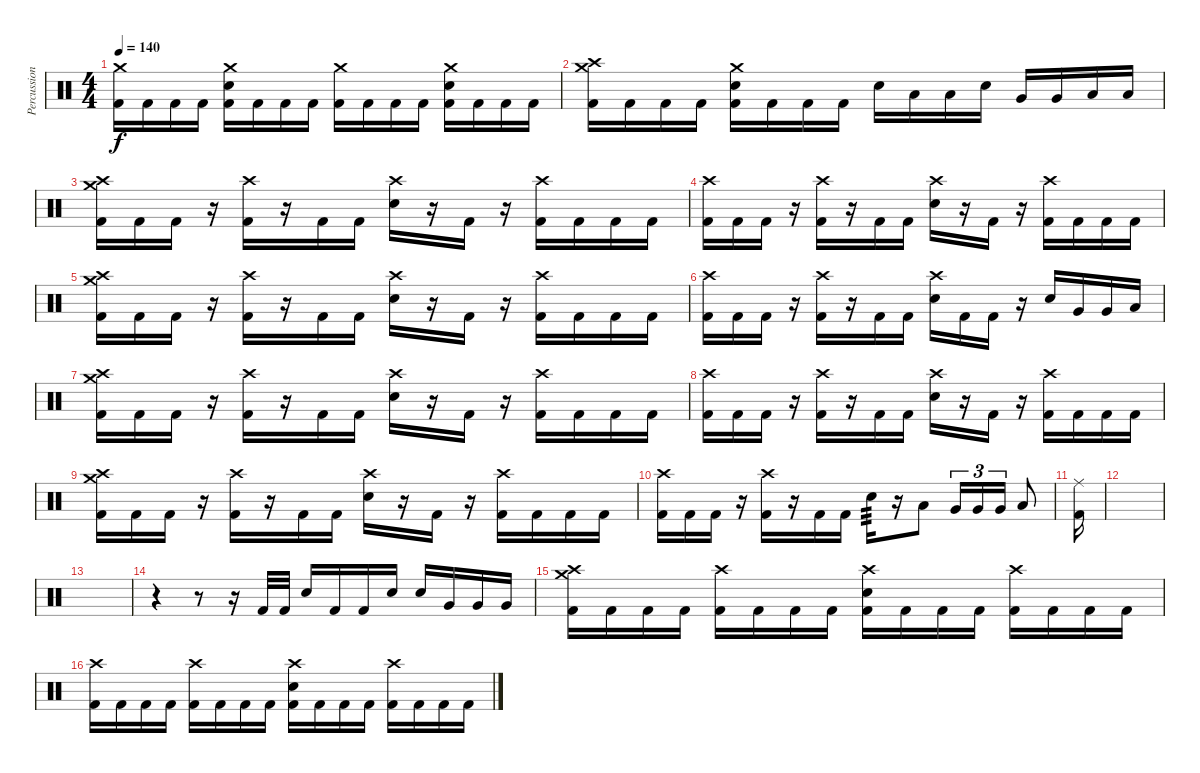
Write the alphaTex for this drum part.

\track ("Percussioni" "Percussion") {mute instrument percussion}
\staff {score}
\articulation defaults
\ts (4 4)
\tempo 140
\clef neutral
\ks c
("Crash medium (hit)" "Kick (hit) 2").16{dy f} "Kick (hit) 2".16 "Kick (hit) 2".16 "Kick (hit) 2".16 ("Crash medium (hit)" "Snare (hit) 2" "Kick (hit) 2").16 "Kick (hit) 2".16 "Kick (hit) 2".16 "Kick (hit) 2".16 ("Crash medium (hit)" "Kick (hit) 2").16 "Kick (hit) 2".16 "Kick (hit) 2".16 "Kick (hit) 2".16 ("Crash medium (hit)" "Snare (hit) 2" "Kick (hit) 2").16 "Kick (hit) 2".16 "Kick (hit) 2".16 "Kick (hit) 2".16 |
("Crash high (hit)" "Crash medium (hit)" "Kick (hit) 2").16 "Kick (hit) 2".16 "Kick (hit) 2".16 "Kick (hit) 2".16 ("Crash medium (hit)" "Snare (hit) 2" "Kick (hit) 2").16 "Kick (hit) 2".16 "Kick (hit) 2".16 "Kick (hit) 2".16 "Snare (hit) 2".16 "Low Tom (hit)".16 "Low Tom (hit)".16 "Snare (hit) 2".16 "Very Low Tom (hit)".16 "Very Low Tom (hit)".16 "Low Floor Tom (hit)".16 "Low Floor Tom (hit)".16 |
("Crash high (hit)" "Crash medium (hit)" "Kick (hit) 2").16 "Kick (hit) 2".16 "Kick (hit) 2".16 r.16 ("Crash high (hit)" "Kick (hit) 2").16 r.16 "Kick (hit) 2".16 "Kick (hit) 2".16 ("Crash high (hit)" "Snare (hit) 2").16 r.16 "Kick (hit) 2".16 r.16 ("Crash high (hit)" "Kick (hit) 2").16 "Kick (hit) 2".16 "Kick (hit) 2".16 "Kick (hit) 2".16 |
("Crash high (hit)" "Kick (hit) 2").16 "Kick (hit) 2".16 "Kick (hit) 2".16 r.16 ("Crash high (hit)" "Kick (hit) 2").16 r.16 "Kick (hit) 2".16 "Kick (hit) 2".16 ("Crash high (hit)" "Snare (hit) 2").16 r.16 "Kick (hit) 2".16 r.16 ("Crash high (hit)" "Kick (hit) 2").16 "Kick (hit) 2".16 "Kick (hit) 2".16 "Kick (hit) 2".16 |
("Crash high (hit)" "Crash medium (hit)" "Kick (hit) 2").16 "Kick (hit) 2".16 "Kick (hit) 2".16 r.16 ("Crash high (hit)" "Kick (hit) 2").16 r.16 "Kick (hit) 2".16 "Kick (hit) 2".16 ("Crash high (hit)" "Snare (hit) 2").16 r.16 "Kick (hit) 2".16 r.16 ("Crash high (hit)" "Kick (hit) 2").16 "Kick (hit) 2".16 "Kick (hit) 2".16 "Kick (hit) 2".16 |
("Crash high (hit)" "Kick (hit) 2").16 "Kick (hit) 2".16 "Kick (hit) 2".16 r.16 ("Crash high (hit)" "Kick (hit) 2").16 r.16 "Kick (hit) 2".16 "Kick (hit) 2".16 ("Crash high (hit)" "Snare (hit) 2").16 "Kick (hit) 2".16 "Kick (hit) 2".16 r.16 "Snare (hit) 2".16 "Very Low Tom (hit)".16 "Very Low Tom (hit)".16 "Low Floor Tom (hit)".16 |
("Crash high (hit)" "Crash medium (hit)" "Kick (hit) 2").16 "Kick (hit) 2".16 "Kick (hit) 2".16 r.16 ("Crash high (hit)" "Kick (hit) 2").16 r.16 "Kick (hit) 2".16 "Kick (hit) 2".16 ("Crash high (hit)" "Snare (hit) 2").16 r.16 "Kick (hit) 2".16 r.16 ("Crash high (hit)" "Kick (hit) 2").16 "Kick (hit) 2".16 "Kick (hit) 2".16 "Kick (hit) 2".16 |
("Crash high (hit)" "Kick (hit) 2").16 "Kick (hit) 2".16 "Kick (hit) 2".16 r.16 ("Crash high (hit)" "Kick (hit) 2").16 r.16 "Kick (hit) 2".16 "Kick (hit) 2".16 ("Crash high (hit)" "Snare (hit) 2").16 r.16 "Kick (hit) 2".16 r.16 ("Crash high (hit)" "Kick (hit) 2").16 "Kick (hit) 2".16 "Kick (hit) 2".16 "Kick (hit) 2".16 |
("Crash high (hit)" "Crash medium (hit)" "Kick (hit) 2").16 "Kick (hit) 2".16 "Kick (hit) 2".16 r.16 ("Crash high (hit)" "Kick (hit) 2").16 r.16 "Kick (hit) 2".16 "Kick (hit) 2".16 ("Crash high (hit)" "Snare (hit) 2").16 r.16 "Kick (hit) 2".16 r.16 ("Crash high (hit)" "Kick (hit) 2").16 "Kick (hit) 2".16 "Kick (hit) 2".16 "Kick (hit) 2".16 |
("Crash high (hit)" "Kick (hit) 2").16 "Kick (hit) 2".16 "Kick (hit) 2".16 r.16 ("Crash high (hit)" "Kick (hit) 2").16 r.16 "Kick (hit) 2".16 "Kick (hit) 2".16 "Snare (hit) 2".16{tp 3} r.16 "Low Tom (hit)".8 "Very Low Tom (hit)".16{tu (3 2)} "Very Low Tom (hit)".16{tu (3 2)} "Very Low Tom (hit)".16{tu (3 2)} "Low Floor Tom (hit)".8 |
("Ride (middle)" "Kick (hit) 2").16 |
|
|
r.4 r.8 r.16 "Kick (hit) 2".32 "Kick (hit) 2".32 "Snare (hit) 2".16 "Kick (hit) 2".16 "Kick (hit) 2".16 "Snare (hit) 2".16 "Snare (hit) 2".16 "Very Low Tom (hit)".16 "Very Low Tom (hit)".16 "Very Low Tom (hit)".16 |
("Kick (hit) 2" "Crash high (hit)" "Crash medium (hit)").16 "Kick (hit) 2".16 "Kick (hit) 2".16 "Kick (hit) 2".16 ("Kick (hit) 2" "Crash high (hit)").16 "Kick (hit) 2".16 "Kick (hit) 2".16 "Kick (hit) 2".16 ("Kick (hit) 2" "Snare (hit) 2" "Crash high (hit)").16 "Kick (hit) 2".16 "Kick (hit) 2".16 "Kick (hit) 2".16 ("Kick (hit) 2" "Crash high (hit)").16 "Kick (hit) 2".16 "Kick (hit) 2".16 "Kick (hit) 2".16 |
("Kick (hit) 2" "Crash high (hit)").16 "Kick (hit) 2".16 "Kick (hit) 2".16 "Kick (hit) 2".16 ("Kick (hit) 2" "Crash high (hit)").16 "Kick (hit) 2".16 "Kick (hit) 2".16 "Kick (hit) 2".16 ("Kick (hit) 2" "Snare (hit) 2" "Crash high (hit)").16 "Kick (hit) 2".16 "Kick (hit) 2".16 "Kick (hit) 2".16 ("Kick (hit) 2" "Crash high (hit)").16 "Kick (hit) 2".16 "Kick (hit) 2".16 "Kick (hit) 2".16
